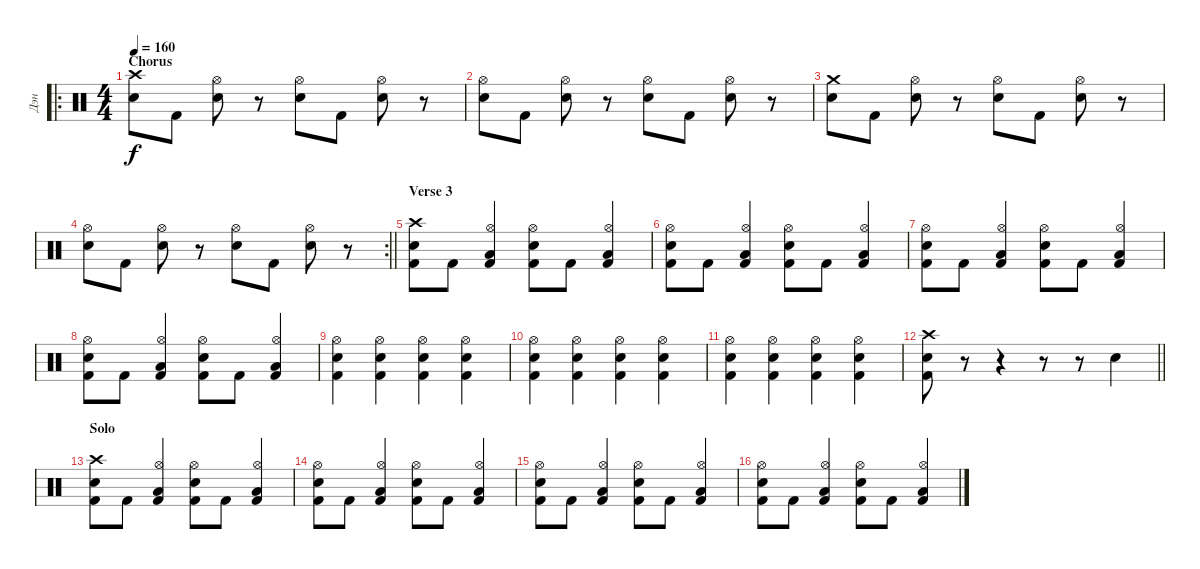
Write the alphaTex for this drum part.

\track ("Дэн" "Дэн") {instrument percussion}
\staff {score}
\articulation defaults
\ro
\ts (4 4)
\section ("" "Chorus")
\tempo 160
\clef neutral
\ks c
("Crash high (hit)" "Electric Snare (hit)").8{dy f} "Kick (hit) 2".8 ("Hi-Hat (open)" "Electric Snare (hit)").8 r.8 ("Hi-Hat (open)" "Electric Snare (hit)").8 "Kick (hit) 2".8 ("Hi-Hat (open)" "Electric Snare (hit)").8 r.8 |
("Hi-Hat (open)" "Electric Snare (hit)").8 "Kick (hit) 2".8 ("Hi-Hat (open)" "Electric Snare (hit)").8 r.8 ("Hi-Hat (open)" "Electric Snare (hit)").8 "Kick (hit) 2".8 ("Hi-Hat (open)" "Electric Snare (hit)").8 r.8 |
("Crash medium (hit)" "Electric Snare (hit)").8 "Kick (hit) 2".8 ("Hi-Hat (open)" "Electric Snare (hit)").8 r.8 ("Hi-Hat (open)" "Electric Snare (hit)").8 "Kick (hit) 2".8 ("Hi-Hat (open)" "Electric Snare (hit)").8 r.8 |
\rc 2
\barLineRight lightlight
("Hi-Hat (open)" "Electric Snare (hit)").8 "Kick (hit) 2".8 ("Hi-Hat (open)" "Electric Snare (hit)").8 r.8 ("Hi-Hat (open)" "Electric Snare (hit)").8 "Kick (hit) 2".8 ("Hi-Hat (open)" "Electric Snare (hit)").8 r.8 |
\section ("" "Verse 3")
("Crash high (hit)" "Electric Snare (hit)" "Kick (hit) 2").8 "Kick (hit) 2".8 ("Hi-Hat (open)" "Low Tom (hit)" "Kick (hit) 2").4 ("Hi-Hat (open)" "Electric Snare (hit)" "Kick (hit) 2").8 "Kick (hit) 2".8 ("Hi-Hat (open)" "Low Tom (hit)" "Kick (hit) 2").4 |
("Hi-Hat (open)" "Electric Snare (hit)" "Kick (hit) 2").8 "Kick (hit) 2".8 ("Hi-Hat (open)" "Low Tom (hit)" "Kick (hit) 2").4 ("Hi-Hat (open)" "Electric Snare (hit)" "Kick (hit) 2").8 "Kick (hit) 2".8 ("Hi-Hat (open)" "Low Tom (hit)" "Kick (hit) 2").4 |
("Hi-Hat (open)" "Electric Snare (hit)" "Kick (hit) 2").8 "Kick (hit) 2".8 ("Hi-Hat (open)" "Low Tom (hit)" "Kick (hit) 2").4 ("Hi-Hat (open)" "Electric Snare (hit)" "Kick (hit) 2").8 "Kick (hit) 2".8 ("Hi-Hat (open)" "Low Tom (hit)" "Kick (hit) 2").4 |
("Hi-Hat (open)" "Electric Snare (hit)" "Kick (hit) 2").8 "Kick (hit) 2".8 ("Hi-Hat (open)" "Low Tom (hit)" "Kick (hit) 2").4 ("Hi-Hat (open)" "Electric Snare (hit)" "Kick (hit) 2").8 "Kick (hit) 2".8 ("Hi-Hat (open)" "Low Tom (hit)" "Kick (hit) 2").4 |
("Hi-Hat (open)" "Electric Snare (hit)" "Kick (hit) 2").4 ("Hi-Hat (open)" "Electric Snare (hit)" "Kick (hit) 2").4 ("Hi-Hat (open)" "Electric Snare (hit)" "Kick (hit) 2").4 ("Hi-Hat (open)" "Electric Snare (hit)" "Kick (hit) 2").4 |
("Hi-Hat (open)" "Electric Snare (hit)" "Kick (hit) 2").4 ("Hi-Hat (open)" "Electric Snare (hit)" "Kick (hit) 2").4 ("Hi-Hat (open)" "Electric Snare (hit)" "Kick (hit) 2").4 ("Hi-Hat (open)" "Electric Snare (hit)" "Kick (hit) 2").4 |
("Hi-Hat (open)" "Electric Snare (hit)" "Kick (hit) 2").4 ("Hi-Hat (open)" "Electric Snare (hit)" "Kick (hit) 2").4 ("Hi-Hat (open)" "Electric Snare (hit)" "Kick (hit) 2").4 ("Hi-Hat (open)" "Electric Snare (hit)" "Kick (hit) 2").4 |
\barLineRight lightlight
("Crash high (hit)" "Electric Snare (hit)" "Kick (hit) 2").8 r.8 r.4 r.8 r.8 "Electric Snare (hit)".4 |
\section ("" "Solo")
("Crash high (hit)" "Electric Snare (hit)" "Kick (hit) 2").8 "Kick (hit) 2".8 ("Hi-Hat (open)" "Low Tom (hit)" "Kick (hit) 2").4 ("Hi-Hat (open)" "Electric Snare (hit)" "Kick (hit) 2").8 "Kick (hit) 2".8 ("Hi-Hat (open)" "Low Tom (hit)" "Kick (hit) 2").4 |
("Hi-Hat (open)" "Electric Snare (hit)" "Kick (hit) 2").8 "Kick (hit) 2".8 ("Hi-Hat (open)" "Low Tom (hit)" "Kick (hit) 2").4 ("Hi-Hat (open)" "Electric Snare (hit)" "Kick (hit) 2").8 "Kick (hit) 2".8 ("Hi-Hat (open)" "Low Tom (hit)" "Kick (hit) 2").4 |
("Hi-Hat (open)" "Electric Snare (hit)" "Kick (hit) 2").8 "Kick (hit) 2".8 ("Hi-Hat (open)" "Low Tom (hit)" "Kick (hit) 2").4 ("Hi-Hat (open)" "Electric Snare (hit)" "Kick (hit) 2").8 "Kick (hit) 2".8 ("Hi-Hat (open)" "Low Tom (hit)" "Kick (hit) 2").4 |
("Hi-Hat (open)" "Electric Snare (hit)" "Kick (hit) 2").8 "Kick (hit) 2".8 ("Hi-Hat (open)" "Low Tom (hit)" "Kick (hit) 2").4 ("Hi-Hat (open)" "Electric Snare (hit)" "Kick (hit) 2").8 "Kick (hit) 2".8 ("Hi-Hat (open)" "Low Tom (hit)" "Kick (hit) 2").4
